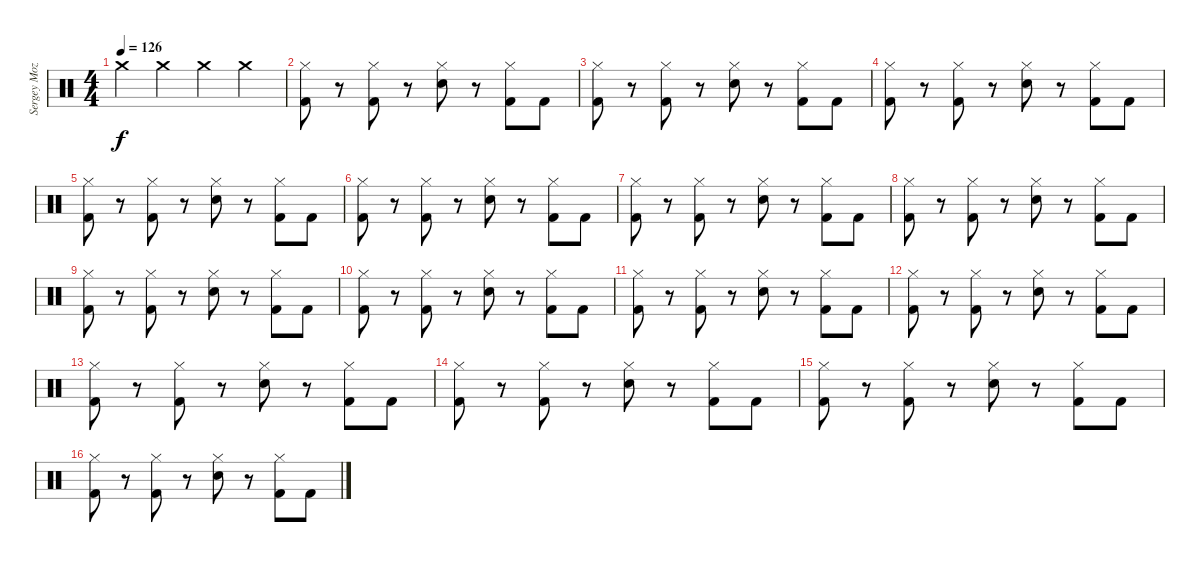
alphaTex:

\track ("Sergey Mozalev" "Sergey Moz") {instrument percussion}
\staff {score}
\articulation defaults
\ts (4 4)
\tempo 126
\clef neutral
\ks c "Crash medium (hit)".4{dy f} "Crash medium (hit)".4 "Crash medium (hit)".4 "Crash medium (hit)".4
|
("Hi-Hat (closed)" "Kick (hit) 2").8 r.8 ("Hi-Hat (closed)" "Kick (hit) 2").8 r.8 ("Hi-Hat (closed)" "Electric Snare (hit)").8 r.8 ("Hi-Hat (closed)" "Kick (hit) 2").8 "Kick (hit) 2".8 |
("Hi-Hat (closed)" "Kick (hit) 2").8 r.8 ("Hi-Hat (closed)" "Kick (hit) 2").8 r.8 ("Hi-Hat (closed)" "Electric Snare (hit)").8 r.8 ("Hi-Hat (closed)" "Kick (hit) 2").8 "Kick (hit) 2".8 |
("Hi-Hat (closed)" "Kick (hit) 2").8 r.8 ("Hi-Hat (closed)" "Kick (hit) 2").8 r.8 ("Hi-Hat (closed)" "Electric Snare (hit)").8 r.8 ("Hi-Hat (closed)" "Kick (hit) 2").8 "Kick (hit) 2".8 |
("Hi-Hat (closed)" "Kick (hit) 2").8 r.8 ("Hi-Hat (closed)" "Kick (hit) 2").8 r.8 ("Hi-Hat (closed)" "Electric Snare (hit)").8 r.8 ("Hi-Hat (closed)" "Kick (hit) 2").8 "Kick (hit) 2".8 |
("Hi-Hat (closed)" "Kick (hit) 2").8 r.8 ("Hi-Hat (closed)" "Kick (hit) 2").8 r.8 ("Hi-Hat (closed)" "Electric Snare (hit)").8 r.8 ("Hi-Hat (closed)" "Kick (hit) 2").8 "Kick (hit) 2".8 |
("Hi-Hat (closed)" "Kick (hit) 2").8 r.8 ("Hi-Hat (closed)" "Kick (hit) 2").8 r.8 ("Hi-Hat (closed)" "Electric Snare (hit)").8 r.8 ("Hi-Hat (closed)" "Kick (hit) 2").8 "Kick (hit) 2".8 |
("Hi-Hat (closed)" "Kick (hit) 2").8 r.8 ("Hi-Hat (closed)" "Kick (hit) 2").8 r.8 ("Hi-Hat (closed)" "Electric Snare (hit)").8 r.8 ("Hi-Hat (closed)" "Kick (hit) 2").8 "Kick (hit) 2".8 |
("Hi-Hat (closed)" "Kick (hit) 2").8 r.8 ("Hi-Hat (closed)" "Kick (hit) 2").8 r.8 ("Hi-Hat (closed)" "Electric Snare (hit)").8 r.8 ("Hi-Hat (closed)" "Kick (hit) 2").8 "Kick (hit) 2".8 |
("Hi-Hat (closed)" "Kick (hit) 2").8 r.8 ("Hi-Hat (closed)" "Kick (hit) 2").8 r.8 ("Hi-Hat (closed)" "Electric Snare (hit)").8 r.8 ("Hi-Hat (closed)" "Kick (hit) 2").8 "Kick (hit) 2".8 |
("Hi-Hat (closed)" "Kick (hit) 2").8 r.8 ("Hi-Hat (closed)" "Kick (hit) 2").8 r.8 ("Hi-Hat (closed)" "Electric Snare (hit)").8 r.8 ("Hi-Hat (closed)" "Kick (hit) 2").8 "Kick (hit) 2".8 |
("Hi-Hat (closed)" "Kick (hit) 2").8 r.8 ("Hi-Hat (closed)" "Kick (hit) 2").8 r.8 ("Hi-Hat (closed)" "Electric Snare (hit)").8 r.8 ("Hi-Hat (closed)" "Kick (hit) 2").8 "Kick (hit) 2".8 |
("Hi-Hat (closed)" "Kick (hit) 2").8 r.8 ("Hi-Hat (closed)" "Kick (hit) 2").8 r.8 ("Hi-Hat (closed)" "Electric Snare (hit)").8 r.8 ("Hi-Hat (closed)" "Kick (hit) 2").8 "Kick (hit) 2".8 |
("Hi-Hat (closed)" "Kick (hit) 2").8 r.8 ("Hi-Hat (closed)" "Kick (hit) 2").8 r.8 ("Hi-Hat (closed)" "Electric Snare (hit)").8 r.8 ("Hi-Hat (closed)" "Kick (hit) 2").8 "Kick (hit) 2".8 |
("Hi-Hat (closed)" "Kick (hit) 2").8 r.8 ("Hi-Hat (closed)" "Kick (hit) 2").8 r.8 ("Hi-Hat (closed)" "Electric Snare (hit)").8 r.8 ("Hi-Hat (closed)" "Kick (hit) 2").8 "Kick (hit) 2".8 |
("Hi-Hat (closed)" "Kick (hit) 2").8 r.8 ("Hi-Hat (closed)" "Kick (hit) 2").8 r.8 ("Hi-Hat (closed)" "Electric Snare (hit)").8 r.8 ("Hi-Hat (closed)" "Kick (hit) 2").8 "Kick (hit) 2".8
